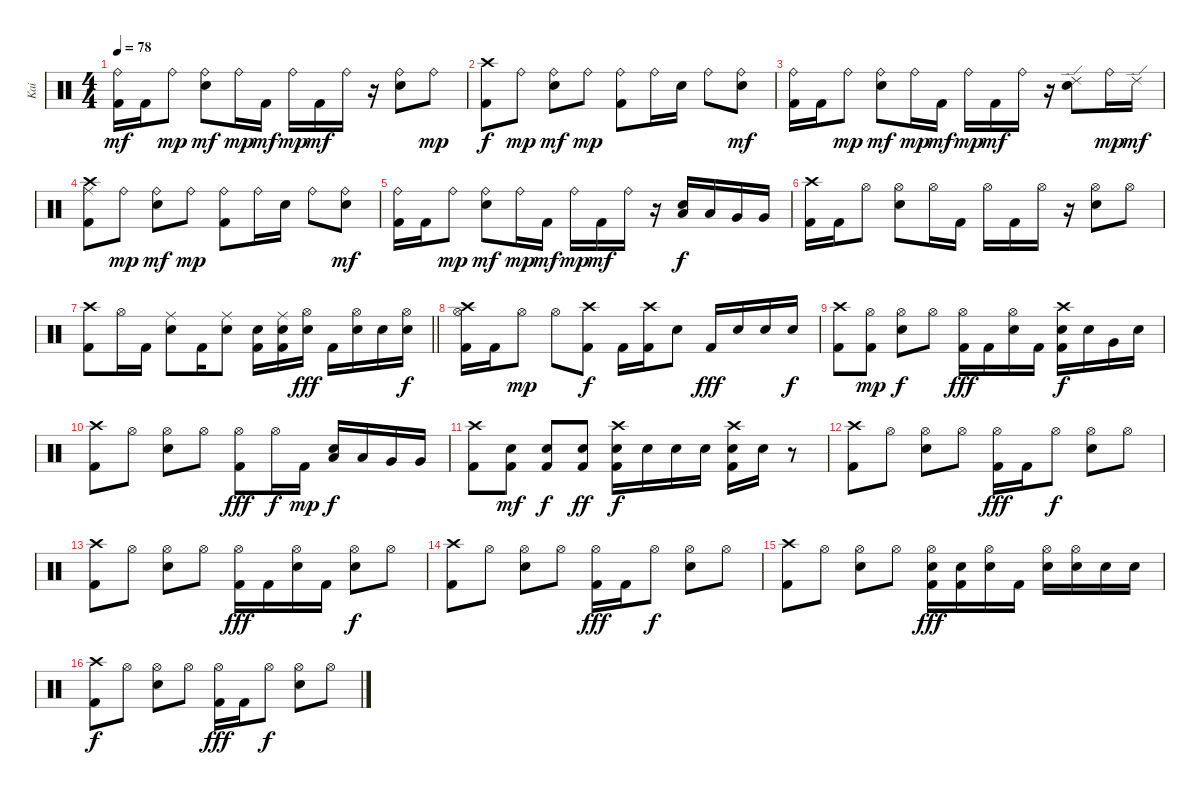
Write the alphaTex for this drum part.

\track ("Kai" "Kai") {instrument percussion}
\staff {score}
\articulation defaults
\ts (4 4)
\tempo 78
\clef neutral
\ks c
("Ride (bell)" "Kick (hit) 2").16{dy mf} "Kick (hit) 2".16 "Ride (bell)".8{dy mp} ("Ride (bell)" "Electric Snare (hit)").8{dy mf} "Ride (bell)".16{dy mp} "Kick (hit) 2".16{dy mf} "Ride (bell)".16{dy mp} "Kick (hit) 2".16{dy mf} "Ride (bell)".16 r.16 ("Ride (bell)" "Electric Snare (hit)").8 "Ride (bell)".8{dy mp} |
("Crash high (hit)" "Kick (hit) 2").8{dy f} "Ride (bell)".8{dy mp} ("Ride (bell)" "Electric Snare (hit)").8{dy mf} "Ride (bell)".8{dy mp} ("Ride (bell)" "Kick (hit) 2").8 "Ride (bell)".16 "Electric Snare (hit)".16 "Ride (bell)".8 ("Ride (bell)" "Electric Snare (hit)").8{dy mf} |
("Ride (bell)" "Kick (hit) 2").16 "Kick (hit) 2".16 "Ride (bell)".8{dy mp} ("Ride (bell)" "Electric Snare (hit)").8{dy mf} "Ride (bell)".16{dy mp} "Kick (hit) 2".16{dy mf} "Ride (bell)".16{dy mp} "Kick (hit) 2".16{dy mf} "Ride (bell)".16 r.16 ("Ride (edge) 2" "Electric Snare (hit)").8 "Ride (bell)".16{dy mp} "Ride (edge) 2".16{dy mf} |
("Ride (middle)" "Crash high (hit)" "Kick (hit) 2").8 "Ride (bell)".8{dy mp} ("Ride (bell)" "Electric Snare (hit)").8{dy mf} "Ride (bell)".8{dy mp} ("Ride (bell)" "Kick (hit) 2").8 "Ride (bell)".16 "Electric Snare (hit)".16 "Ride (bell)".8 ("Ride (bell)" "Electric Snare (hit)").8{dy mf} |
("Ride (bell)" "Kick (hit) 2").16 "Kick (hit) 2".16 "Ride (bell)".8{dy mp} ("Ride (bell)" "Electric Snare (hit)").8{dy mf} "Ride (bell)".16{dy mp} "Kick (hit) 2".16{dy mf} "Ride (bell)".16{dy mp} "Kick (hit) 2".16{dy mf} "Ride (bell)".16 r.16 ("Low Tom (hit)" "Electric Snare (hit)").16{dy f} "Low Tom (hit)".16 "Very Low Tom (hit)".16 "Very Low Tom (hit)".16 |
("Crash high (hit)" "Kick (hit) 2").16 "Kick (hit) 2".16 "Hi-Hat (open)".8 ("Hi-Hat (open)" "Electric Snare (hit)").8 "Hi-Hat (open)".16 "Kick (hit) 2".16 "Hi-Hat (open)".16 "Kick (hit) 2".16 "Hi-Hat (open)".16 r.16 ("Hi-Hat (open)" "Electric Snare (hit)").8 "Hi-Hat (open)".8 |
\barLineRight lightlight
("Crash high (hit)" "Kick (hit) 2").8 "Hi-Hat (open)".16 "Kick (hit) 2".16 ("Ride (middle)" "Electric Snare (hit)").8 "Kick (hit) 2".16 ("Ride (middle)" "Electric Snare (hit)").8 ("Electric Snare (hit)" "Kick (hit) 2").16 ("Ride (middle)" "Electric Snare (hit)" "Kick (hit) 2").16 ("Hi-Hat (open)" "Electric Snare (hit)").16{dy fff} "Kick (hit) 2".16 ("Hi-Hat (open)" "Electric Snare (hit)").16 "Electric Snare (hit)".16 ("Hi-Hat (open)" "Electric Snare (hit)").16{dy f} |
("Crash high (hit)" "Hi-Hat (open)" "Kick (hit) 2").16 "Kick (hit) 2".16 "Hi-Hat (open)".8{dy mp} "Hi-Hat (open)".8 ("Crash high (hit)" "Kick (hit) 2").8{dy f} "Kick (hit) 2".16 ("Crash high (hit)" "Kick (hit) 2").16 "Electric Snare (hit)".8 "Kick (hit) 2".16{dy fff} "Electric Snare (hit)".16 "Electric Snare (hit)".16 "Electric Snare (hit)".16{dy f} |
("Crash high (hit)" "Kick (hit) 2").8 ("Hi-Hat (open)" "Kick (hit) 2").8{dy mp} ("Hi-Hat (open)" "Electric Snare (hit)").8{dy f} "Hi-Hat (open)".8 ("Hi-Hat (open)" "Kick (hit) 2").16{dy fff} "Kick (hit) 2".16 ("Hi-Hat (open)" "Electric Snare (hit)").16 "Kick (hit) 2".16 ("Crash high (hit)" "Electric Snare (hit)" "Kick (hit) 2").16{dy f} "Electric Snare (hit)".16 "Very Low Tom (hit)".16 "Electric Snare (hit)".16 |
("Crash high (hit)" "Kick (hit) 2").8 "Hi-Hat (open)".8 ("Hi-Hat (open)" "Electric Snare (hit)").8 "Hi-Hat (open)".8 ("Hi-Hat (open)" "Kick (hit) 2").8{dy fff} "Hi-Hat (open)".16{dy f} "Kick (hit) 2".16{dy mp} ("Low Tom (hit)" "Electric Snare (hit)").16{dy f} "Low Tom (hit)".16 "Very Low Tom (hit)".16 "Very Low Tom (hit)".16 |
("Crash high (hit)" "Kick (hit) 2").8 ("Electric Snare (hit)" "Kick (hit) 2").8{dy mf} ("Electric Snare (hit)" "Kick (hit) 2").8{dy f} ("Electric Snare (hit)" "Kick (hit) 2").8{dy ff} ("Crash high (hit)" "Electric Snare (hit)" "Kick (hit) 2").16{dy f} "Electric Snare (hit)".16 "Electric Snare (hit)".16 "Electric Snare (hit)".16 ("Crash high (hit)" "Electric Snare (hit)" "Kick (hit) 2").16 "Electric Snare (hit)".16 r.8 |
("Crash high (hit)" "Kick (hit) 2").8 "Hi-Hat (open)".8 ("Hi-Hat (open)" "Electric Snare (hit)").8 "Hi-Hat (open)".8 ("Hi-Hat (open)" "Kick (hit) 2").16{dy fff} "Kick (hit) 2".16 "Hi-Hat (open)".8{dy f} ("Hi-Hat (open)" "Electric Snare (hit)").8 "Hi-Hat (open)".8 |
("Crash high (hit)" "Kick (hit) 2").8 "Hi-Hat (open)".8 ("Hi-Hat (open)" "Electric Snare (hit)").8 "Hi-Hat (open)".8 ("Hi-Hat (open)" "Kick (hit) 2").16{dy fff} "Kick (hit) 2".16 ("Hi-Hat (open)" "Electric Snare (hit)").16 "Kick (hit) 2".16 ("Hi-Hat (open)" "Electric Snare (hit)").8{dy f} "Hi-Hat (open)".8 |
("Crash high (hit)" "Kick (hit) 2").8 "Hi-Hat (open)".8 ("Hi-Hat (open)" "Electric Snare (hit)").8 "Hi-Hat (open)".8 ("Hi-Hat (open)" "Kick (hit) 2").16{dy fff} "Kick (hit) 2".16 "Hi-Hat (open)".8{dy f} ("Hi-Hat (open)" "Electric Snare (hit)").8 "Hi-Hat (open)".8 |
("Crash high (hit)" "Kick (hit) 2").8 "Hi-Hat (open)".8 ("Hi-Hat (open)" "Electric Snare (hit)").8 "Hi-Hat (open)".8 ("Hi-Hat (open)" "Electric Snare (hit)" "Kick (hit) 2").16{dy fff} ("Electric Snare (hit)" "Kick (hit) 2").16 ("Hi-Hat (open)" "Electric Snare (hit)").16 "Kick (hit) 2".16 ("Hi-Hat (open)" "Electric Snare (hit)").16 ("Hi-Hat (open)" "Electric Snare (hit)").16 "Electric Snare (hit)".16 "Electric Snare (hit)".16 |
("Crash high (hit)" "Kick (hit) 2").8{dy f} "Hi-Hat (open)".8 ("Hi-Hat (open)" "Electric Snare (hit)").8 "Hi-Hat (open)".8 ("Hi-Hat (open)" "Kick (hit) 2").16{dy fff} "Kick (hit) 2".16 "Hi-Hat (open)".8{dy f} ("Hi-Hat (open)" "Electric Snare (hit)").8 "Hi-Hat (open)".8
